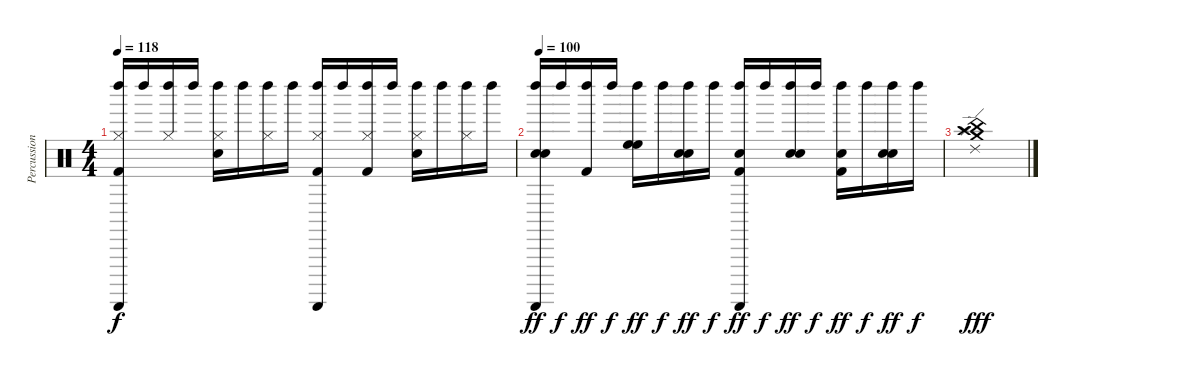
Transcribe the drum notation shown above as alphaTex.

\track ("Percussions" "Percussion") {instrument percussion}
\staff {score}
\articulation defaults
\ts (4 4)
\tempo 118
\clef neutral
\ks c
("Guiro (scrap-return)" "Left Maraca (hit)" "Hi-Hat (closed)" "Kick (hit) 2").16{dy f} "Left Maraca (hit)".16 ("Left Maraca (hit)" "Hi-Hat (closed)").16 "Left Maraca (hit)".16 ("Left Maraca (hit)" "Hi-Hat (closed)" "Snare (hit) 2").16 "Left Maraca (hit)".16 ("Left Maraca (hit)" "Hi-Hat (closed)").16 "Left Maraca (hit)".16 ("Guiro (scrap-return)" "Left Maraca (hit)" "Hi-Hat (closed)" "Kick (hit) 2").16 "Left Maraca (hit)".16 ("Left Maraca (hit)" "Hi-Hat (closed)" "Kick (hit) 2").16 "Left Maraca (hit)".16 ("Left Maraca (hit)" "Hi-Hat (closed)" "Snare (hit) 2").16 "Left Maraca (hit)".16 ("Left Maraca (hit)" "Hi-Hat (closed)").16 "Left Maraca (hit)".16 |
\tempo 100
("Guiro (scrap-return)" "Left Maraca (hit)" "Snare (hit) 2" "Snare (hit) 2").16{dy ff} "Left Maraca (hit)".16{dy f} ("Left Maraca (hit)" "Kick (hit) 2").16{dy ff} "Left Maraca (hit)".16{dy f} ("Left Maraca (hit)" "High Floor Tom (hit)" "High Floor Tom (hit)").16{dy ff} "Left Maraca (hit)".16{dy f} ("Left Maraca (hit)" "Snare (hit) 2" "Snare (hit) 2").16{dy ff} "Left Maraca (hit)".16{dy f} ("Guiro (scrap-return)" "Left Maraca (hit)" "Snare (hit) 2" "Kick (hit) 2").16{dy ff} "Left Maraca (hit)".16{dy f} ("Left Maraca (hit)" "Snare (hit) 2" "Snare (hit) 2").16{dy ff} "Left Maraca (hit)".16{dy f} ("Left Maraca (hit)" "Snare (hit) 2" "Kick (hit) 2").16{dy ff} "Left Maraca (hit)".16{dy f} ("Left Maraca (hit)" "Snare (hit) 2" "Snare (hit) 2").16{dy ff} "Left Maraca (hit)".16{dy f} |
("Crash high (hit)" "China (hit)" "Splash (hit)" "Crash medium (hit)" "Ride (edge) 2").1{dy fff}
